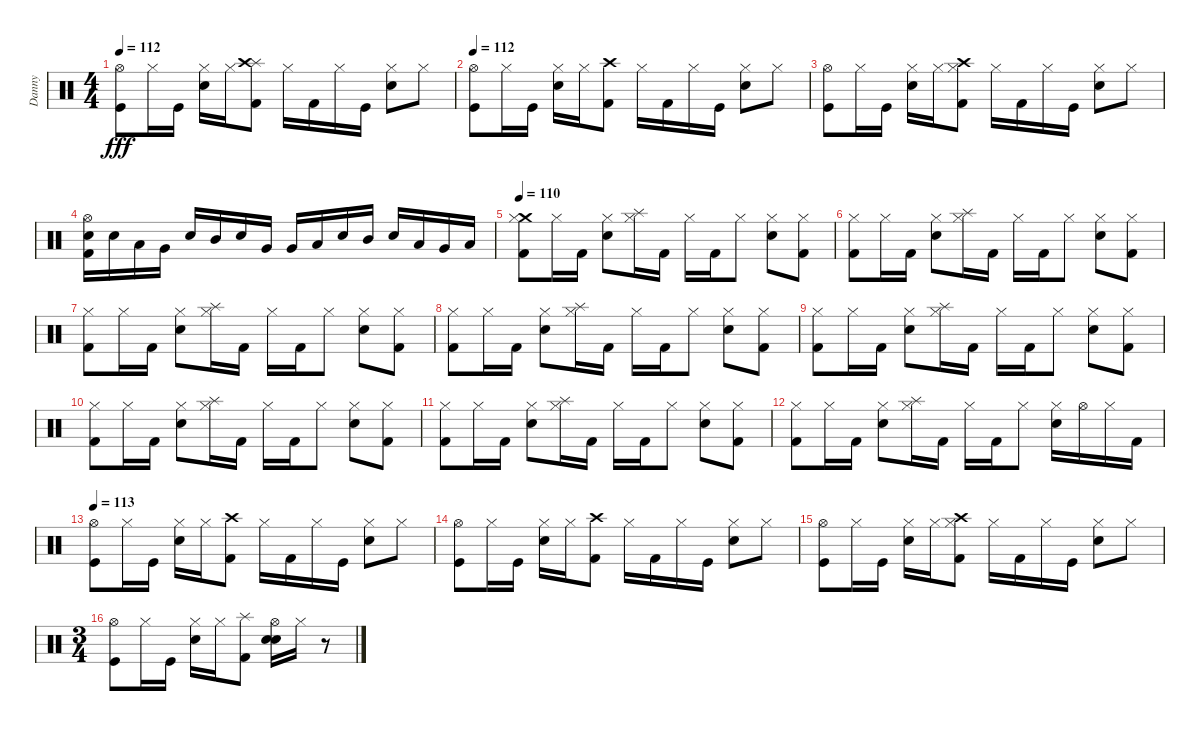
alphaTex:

\track ("Danny" "Danny") {instrument percussion}
\staff {score}
\articulation defaults
\ts (4 4)
\tempo 112
\clef neutral
\ks c
("Hi-Hat (open)" "Kick (hit)").8{dy fff} "Hi-Hat (closed)".16 "Kick (hit)".16 ("Hi-Hat (closed)" "Snare (hit) 2").16 "Hi-Hat (closed)".16 ("Splash (hit)" "Kick (hit) 2" "Crash high (hit)").8 "Hi-Hat (closed)".16 "Kick (hit) 2".16 "Hi-Hat (closed)".16 "Kick (hit)".16 ("Snare (hit) 2" "Hi-Hat (closed)").8 "Hi-Hat (closed)".8 |
\tempo 112
("Hi-Hat (open)" "Kick (hit)").8 "Hi-Hat (closed)".16 "Kick (hit)".16 ("Hi-Hat (closed)" "Snare (hit) 2").16 "Hi-Hat (closed)".16 ("Kick (hit) 2" "Crash high (hit)").8 "Hi-Hat (closed)".16 "Kick (hit) 2".16 "Hi-Hat (closed)".16 "Kick (hit)".16 ("Snare (hit) 2" "Hi-Hat (closed)").8 "Hi-Hat (closed)".8 |
("Hi-Hat (open)" "Kick (hit)").8 "Hi-Hat (closed)".16 "Kick (hit)".16 ("Hi-Hat (closed)" "Snare (hit) 2").16 "Hi-Hat (closed)".16 ("Crash high (hit)" "Hi-Hat (closed)" "Kick (hit) 2").8 "Hi-Hat (closed)".16 "Kick (hit) 2".16 "Hi-Hat (closed)".16 "Kick (hit)".16 ("Snare (hit) 2" "Hi-Hat (closed)").8 "Hi-Hat (closed)".8 |
("Kick (hit) 2" "Hi-Hat (open)" "Snare (hit) 2").16 "Snare (hit) 2".16 "Low Tom (hit)".16 "Very Low Tom (hit)".16 "Snare (hit) 2".16 "Mid Tom (hit)".16 "Snare (hit) 2".16 "Very Low Tom (hit)".16 "Very Low Tom (hit)".16 "Low Floor Tom (hit)".16 "Snare (hit) 2".16 "Mid Tom (hit)".16 "Snare (hit) 2".16 "Low Tom (hit)".16 "Very Low Tom (hit)".16 "Low Floor Tom (hit)".16 |
\tempo 110
("Crash medium (hit)" "Kick (hit) 2" "Hi-Hat (closed)").8 "Hi-Hat (closed)".16 "Kick (hit) 2".16 ("Snare (hit) 2" "Hi-Hat (closed)").8 ("Splash (hit)" "Hi-Hat (closed)").16 "Kick (hit) 2".16 "Hi-Hat (closed)".16 "Kick (hit) 2".16 "Hi-Hat (closed)".8 ("Snare (hit) 2" "Hi-Hat (closed)").8 ("Kick (hit) 2" "Hi-Hat (closed)").8 |
("Kick (hit) 2" "Hi-Hat (closed)").8 "Hi-Hat (closed)".16 "Kick (hit) 2".16 ("Snare (hit) 2" "Hi-Hat (closed)").8 ("Splash (hit)" "Hi-Hat (closed)").16 "Kick (hit) 2".16 "Hi-Hat (closed)".16 "Kick (hit) 2".16 "Hi-Hat (closed)".8 ("Snare (hit) 2" "Hi-Hat (closed)").8 ("Kick (hit) 2" "Hi-Hat (closed)").8 |
("Kick (hit) 2" "Hi-Hat (closed)").8 "Hi-Hat (closed)".16 "Kick (hit) 2".16 ("Snare (hit) 2" "Hi-Hat (closed)").8 ("Splash (hit)" "Hi-Hat (closed)").16 "Kick (hit) 2".16 "Hi-Hat (closed)".16 "Kick (hit) 2".16 "Hi-Hat (closed)".8 ("Snare (hit) 2" "Hi-Hat (closed)").8 ("Kick (hit) 2" "Hi-Hat (closed)").8 |
("Kick (hit) 2" "Hi-Hat (closed)").8 "Hi-Hat (closed)".16 "Kick (hit) 2".16 ("Snare (hit) 2" "Hi-Hat (closed)").8 ("Splash (hit)" "Hi-Hat (closed)").16 "Kick (hit) 2".16 "Hi-Hat (closed)".16 "Kick (hit) 2".16 "Hi-Hat (closed)".8 ("Snare (hit) 2" "Hi-Hat (closed)").8 ("Kick (hit) 2" "Hi-Hat (closed)").8 |
("Kick (hit) 2" "Hi-Hat (closed)").8 "Hi-Hat (closed)".16 "Kick (hit) 2".16 ("Snare (hit) 2" "Hi-Hat (closed)").8 ("Splash (hit)" "Hi-Hat (closed)").16 "Kick (hit) 2".16 "Hi-Hat (closed)".16 "Kick (hit) 2".16 "Hi-Hat (closed)".8 ("Snare (hit) 2" "Hi-Hat (closed)").8 ("Kick (hit) 2" "Hi-Hat (closed)").8 |
("Kick (hit) 2" "Hi-Hat (closed)").8 "Hi-Hat (closed)".16 "Kick (hit) 2".16 ("Snare (hit) 2" "Hi-Hat (closed)").8 ("Splash (hit)" "Hi-Hat (closed)").16 "Kick (hit) 2".16 "Hi-Hat (closed)".16 "Kick (hit) 2".16 "Hi-Hat (closed)".8 ("Snare (hit) 2" "Hi-Hat (closed)").8 ("Kick (hit) 2" "Hi-Hat (closed)").8 |
("Kick (hit) 2" "Hi-Hat (closed)").8 "Hi-Hat (closed)".16 "Kick (hit) 2".16 ("Snare (hit) 2" "Hi-Hat (closed)").8 ("Splash (hit)" "Hi-Hat (closed)").16 "Kick (hit) 2".16 "Hi-Hat (closed)".16 "Kick (hit) 2".16 "Hi-Hat (closed)".8 ("Snare (hit) 2" "Hi-Hat (closed)").8 ("Kick (hit) 2" "Hi-Hat (closed)").8 |
("Kick (hit) 2" "Hi-Hat (closed)").8 "Hi-Hat (closed)".16 "Kick (hit) 2".16 ("Snare (hit) 2" "Hi-Hat (closed)").8 ("Splash (hit)" "Hi-Hat (closed)").16 "Kick (hit) 2".16 "Hi-Hat (closed)".16 "Kick (hit) 2".16 "Hi-Hat (closed)".8 ("Snare (hit) 2" "Hi-Hat (closed)").16 "Hi-Hat (open)".16 "Hi-Hat (closed)".16 "Kick (hit) 2".16 |
\tempo 113
("Hi-Hat (open)" "Kick (hit)").8 "Hi-Hat (closed)".16 "Kick (hit)".16 ("Hi-Hat (closed)" "Snare (hit) 2").16 "Hi-Hat (closed)".16 ("Kick (hit) 2" "Crash high (hit)").8 "Hi-Hat (closed)".16 "Kick (hit) 2".16 "Hi-Hat (closed)".16 "Kick (hit)".16 ("Snare (hit) 2" "Hi-Hat (closed)").8 "Hi-Hat (closed)".8 |
("Hi-Hat (open)" "Kick (hit)").8 "Hi-Hat (closed)".16 "Kick (hit)".16 ("Hi-Hat (closed)" "Snare (hit) 2").16 "Hi-Hat (closed)".16 ("Kick (hit) 2" "Crash high (hit)").8 "Hi-Hat (closed)".16 "Kick (hit) 2".16 "Hi-Hat (closed)".16 "Kick (hit)".16 ("Snare (hit) 2" "Hi-Hat (closed)").8 "Hi-Hat (closed)".8 |
("Hi-Hat (open)" "Kick (hit)").8 "Hi-Hat (closed)".16 "Kick (hit)".16 ("Hi-Hat (closed)" "Snare (hit) 2").16 "Hi-Hat (closed)".16 ("Crash high (hit)" "Hi-Hat (closed)" "Kick (hit) 2").8 "Hi-Hat (closed)".16 "Kick (hit) 2".16 "Hi-Hat (closed)".16 "Kick (hit)".16 ("Snare (hit) 2" "Hi-Hat (closed)").8 "Hi-Hat (closed)".8 |
\ts (3 4)
("Hi-Hat (open)" "Kick (hit)").8 "Hi-Hat (closed)".16 "Kick (hit)".16 ("Hi-Hat (closed)" "Snare (hit) 2").16 "Hi-Hat (closed)".16 ("Splash (hit)" "Kick (hit) 2").8 ("Snare (hit) 2" "Hi-Hat (open)" "Snare (hit) 2").16 "Hi-Hat (closed)".16 r.8
